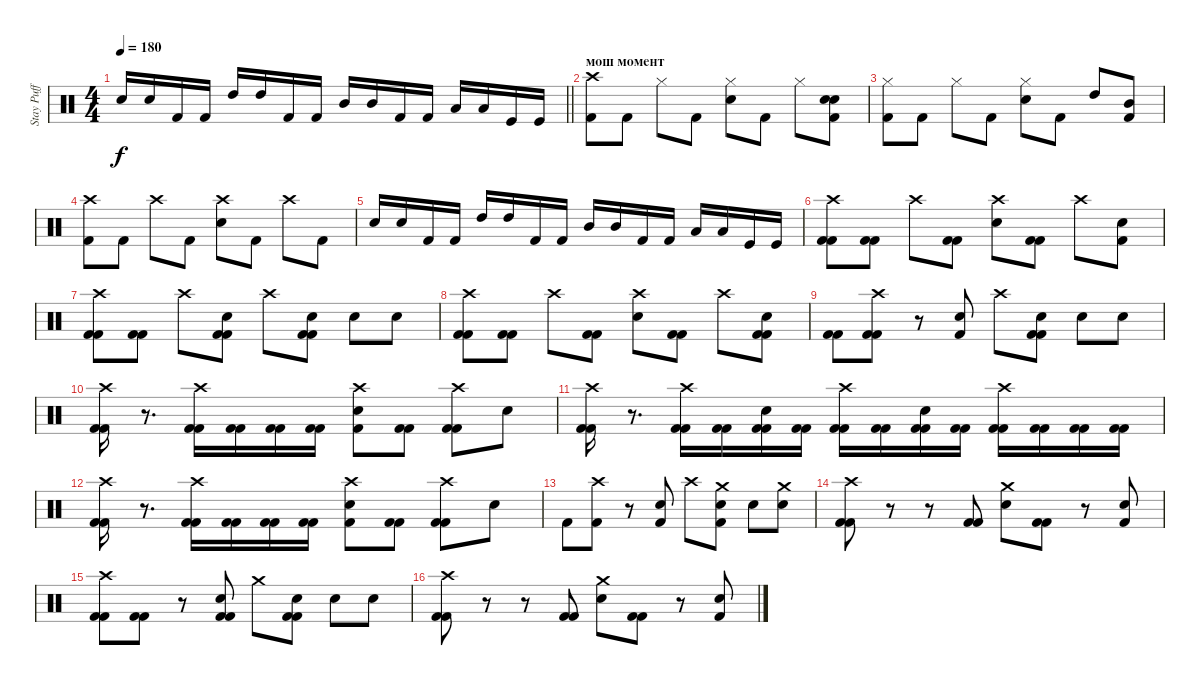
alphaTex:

\track ("Stay Puff" "Stay Puff") {instrument percussion}
\staff {score}
\articulation defaults
\ts (4 4)
\tempo 180
\clef neutral
\barLineRight lightlight
\ks c "Electric Snare (hit)".16{dy f} "Electric Snare (hit)".16 "Kick (hit) 2".16 "Kick (hit) 2".16 "High Tom (hit)".16 "High Tom (hit)".16 "Kick (hit) 2".16 "Kick (hit) 2".16 "Mid Tom (hit)".16 "Mid Tom (hit)".16 "Kick (hit) 2".16 "Kick (hit) 2".16 "Low Tom (hit)".16 "Low Tom (hit)".16 "Kick (hit)".16 "Kick (hit)".16
|
\section ("" "мош момент")
("Crash high (hit)" "Kick (hit) 2").8 "Kick (hit) 2".8 "Hi-Hat (closed)".8 "Kick (hit) 2".8 ("Hi-Hat (closed)" "Electric Snare (hit)").8 "Kick (hit) 2".8 "Hi-Hat (closed)".8 ("Snare (hit)" "Electric Snare (hit)" "Kick (hit) 2").8 |
("Hi-Hat (closed)" "Kick (hit) 2").8 "Kick (hit) 2".8 "Hi-Hat (closed)".8 "Kick (hit) 2".8 ("Hi-Hat (closed)" "Electric Snare (hit)").8 "Kick (hit) 2".8 "High Tom (hit)".8 ("Mid Tom (hit)" "Kick (hit) 2").8 |
("Crash high (hit)" "Kick (hit) 2").8 "Kick (hit) 2".8 "Crash high (hit)".8 "Kick (hit) 2".8 ("Crash high (hit)" "Electric Snare (hit)").8 "Kick (hit) 2".8 "Crash high (hit)".8 "Kick (hit) 2".8 |
"Electric Snare (hit)".16 "Electric Snare (hit)".16 "Kick (hit) 2".16 "Kick (hit) 2".16 "High Tom (hit)".16 "High Tom (hit)".16 "Kick (hit) 2".16 "Kick (hit) 2".16 "Mid Tom (hit)".16 "Mid Tom (hit)".16 "Kick (hit) 2".16 "Kick (hit) 2".16 "Low Tom (hit)".16 "Low Tom (hit)".16 "Kick (hit)".16 "Kick (hit)".16 |
("Crash high (hit)" "Kick (hit) 2" "Kick (hit) 2").8 ("Kick (hit) 2" "Kick (hit) 2").8 "Crash high (hit)".8 ("Kick (hit) 2" "Kick (hit) 2").8 ("Crash high (hit)" "Electric Snare (hit)").8 ("Kick (hit) 2" "Kick (hit) 2").8 "Crash high (hit)".8 ("Electric Snare (hit)" "Kick (hit) 2").8 |
("Crash high (hit)" "Kick (hit) 2" "Kick (hit) 2").8 ("Kick (hit) 2" "Kick (hit) 2").8 "Crash high (hit)".8 ("Kick (hit) 2" "Electric Snare (hit)" "Kick (hit) 2").8 "Crash high (hit)".8 ("Kick (hit) 2" "Electric Snare (hit)" "Kick (hit) 2").8 "Electric Snare (hit)".8 "Electric Snare (hit)".8 |
("Crash high (hit)" "Kick (hit) 2" "Kick (hit) 2").8 ("Kick (hit) 2" "Kick (hit) 2").8 "Crash high (hit)".8 ("Kick (hit) 2" "Kick (hit) 2").8 ("Crash high (hit)" "Electric Snare (hit)").8 ("Kick (hit) 2" "Kick (hit) 2").8 "Crash high (hit)".8 ("Kick (hit) 2" "Electric Snare (hit)" "Kick (hit) 2").8 |
("Kick (hit) 2" "Kick (hit) 2").8 ("Crash high (hit)" "Kick (hit) 2" "Kick (hit) 2").8 r.8 ("Electric Snare (hit)" "Kick (hit) 2").8 "Crash high (hit)".8 ("Kick (hit) 2" "Electric Snare (hit)" "Kick (hit) 2").8 "Electric Snare (hit)".8 "Electric Snare (hit)".8 |
("Crash high (hit)" "Kick (hit) 2" "Kick (hit) 2").16 r.8{d} ("Crash high (hit)" "Kick (hit) 2" "Kick (hit) 2").16 ("Kick (hit) 2" "Kick (hit) 2").16 ("Kick (hit) 2" "Kick (hit) 2").16 ("Kick (hit) 2" "Kick (hit) 2").16 ("Crash high (hit)" "Electric Snare (hit)" "Kick (hit) 2").8 ("Kick (hit) 2" "Kick (hit) 2").8 ("Crash high (hit)" "Kick (hit) 2" "Kick (hit) 2").8 "Electric Snare (hit)".8 |
("Crash high (hit)" "Kick (hit) 2" "Kick (hit) 2").16 r.8{d} ("Crash high (hit)" "Kick (hit) 2" "Kick (hit) 2").16 ("Kick (hit) 2" "Kick (hit) 2").16 ("Electric Snare (hit)" "Kick (hit) 2" "Kick (hit) 2").16 ("Kick (hit) 2" "Kick (hit) 2").16 ("Crash high (hit)" "Kick (hit) 2" "Kick (hit) 2").16 ("Kick (hit) 2" "Kick (hit) 2").16 ("Electric Snare (hit)" "Kick (hit) 2" "Kick (hit) 2").16 ("Kick (hit) 2" "Kick (hit) 2").16 ("Crash high (hit)" "Kick (hit) 2" "Kick (hit) 2").16 ("Kick (hit) 2" "Kick (hit) 2").16 ("Kick (hit) 2" "Kick (hit) 2").16 ("Kick (hit) 2" "Kick (hit) 2").16 |
("Crash high (hit)" "Kick (hit) 2" "Kick (hit) 2").16 r.8{d} ("Crash high (hit)" "Kick (hit) 2" "Kick (hit) 2").16 ("Kick (hit) 2" "Kick (hit) 2").16 ("Kick (hit) 2" "Kick (hit) 2").16 ("Kick (hit) 2" "Kick (hit) 2").16 ("Crash high (hit)" "Electric Snare (hit)" "Kick (hit) 2").8 ("Kick (hit) 2" "Kick (hit) 2").8 ("Crash high (hit)" "Kick (hit) 2" "Kick (hit) 2").8 "Electric Snare (hit)".8 |
"Kick (hit) 2".8 ("Crash high (hit)" "Kick (hit) 2").8 r.8 ("Electric Snare (hit)" "Kick (hit) 2").8 "Crash high (hit)".8 ("Crash medium (hit)" "Electric Snare (hit)" "Kick (hit) 2").8 "Electric Snare (hit)".8 ("Crash medium (hit)" "Electric Snare (hit)").8 |
("Crash high (hit)" "Kick (hit) 2" "Kick (hit) 2").8 r.8 r.8 ("Kick (hit) 2" "Kick (hit) 2").8 ("Crash medium (hit)" "Electric Snare (hit)").8 ("Kick (hit) 2" "Kick (hit) 2").8 r.8 ("Electric Snare (hit)" "Kick (hit) 2").8 |
("Crash high (hit)" "Kick (hit) 2" "Kick (hit) 2").8 ("Kick (hit) 2" "Kick (hit) 2").8 r.8 ("Kick (hit) 2" "Electric Snare (hit)" "Kick (hit) 2").8 "Crash medium (hit)".8 ("Kick (hit) 2" "Electric Snare (hit)" "Kick (hit) 2").8 "Electric Snare (hit)".8 "Electric Snare (hit)".8 |
("Crash high (hit)" "Kick (hit) 2" "Kick (hit) 2").8 r.8 r.8 ("Kick (hit) 2" "Kick (hit) 2").8 ("Crash medium (hit)" "Electric Snare (hit)").8 ("Kick (hit) 2" "Kick (hit) 2").8 r.8 ("Electric Snare (hit)" "Kick (hit) 2").8
